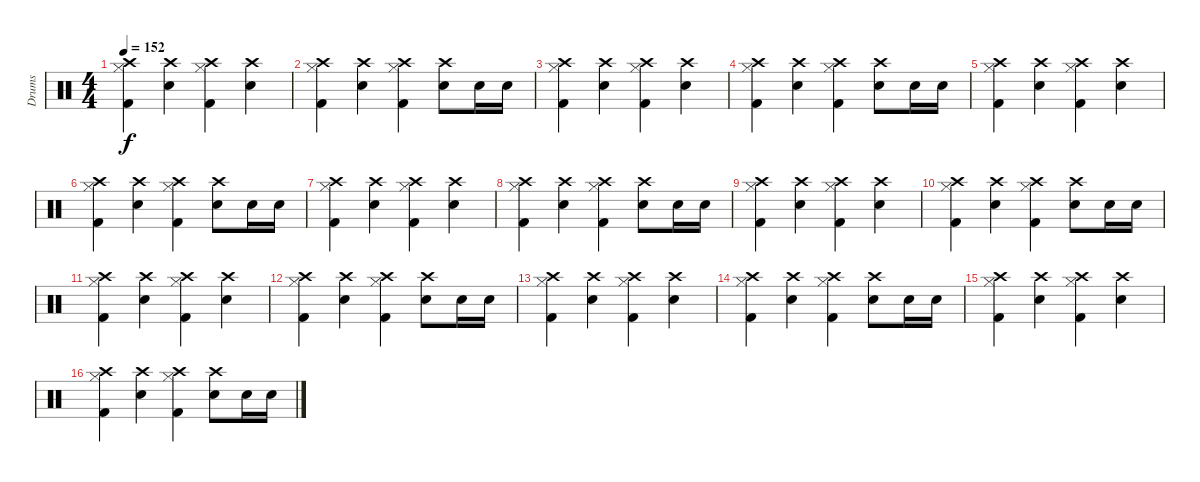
\track ("Drums" "Drums") {instrument percussion}
\staff {score}
\articulation defaults
\ts (4 4)
\tempo 152
\clef neutral
\ks c
("Crash high (hit)" "Hi-Hat (closed)" "Kick (hit) 2").4{dy f} ("Crash high (hit)" "Electric Snare (hit)").4 ("Crash high (hit)" "Hi-Hat (closed)" "Kick (hit) 2").4 ("Crash high (hit)" "Electric Snare (hit)").4 |
("Crash high (hit)" "Hi-Hat (closed)" "Kick (hit) 2").4 ("Crash high (hit)" "Electric Snare (hit)").4 ("Crash high (hit)" "Hi-Hat (closed)" "Kick (hit) 2").4 ("Crash high (hit)" "Electric Snare (hit)").8 "Electric Snare (hit)".16 "Electric Snare (hit)".16 |
("Crash high (hit)" "Hi-Hat (closed)" "Kick (hit) 2").4 ("Crash high (hit)" "Electric Snare (hit)").4 ("Crash high (hit)" "Hi-Hat (closed)" "Kick (hit) 2").4 ("Crash high (hit)" "Electric Snare (hit)").4 |
("Crash high (hit)" "Hi-Hat (closed)" "Kick (hit) 2").4 ("Crash high (hit)" "Electric Snare (hit)").4 ("Crash high (hit)" "Hi-Hat (closed)" "Kick (hit) 2").4 ("Crash high (hit)" "Electric Snare (hit)").8 "Electric Snare (hit)".16 "Electric Snare (hit)".16 |
("Crash high (hit)" "Hi-Hat (closed)" "Kick (hit) 2").4 ("Crash high (hit)" "Electric Snare (hit)").4 ("Crash high (hit)" "Hi-Hat (closed)" "Kick (hit) 2").4 ("Crash high (hit)" "Electric Snare (hit)").4 |
("Crash high (hit)" "Hi-Hat (closed)" "Kick (hit) 2").4 ("Crash high (hit)" "Electric Snare (hit)").4 ("Crash high (hit)" "Hi-Hat (closed)" "Kick (hit) 2").4 ("Crash high (hit)" "Electric Snare (hit)").8 "Electric Snare (hit)".16 "Electric Snare (hit)".16 |
("Crash high (hit)" "Hi-Hat (closed)" "Kick (hit) 2").4 ("Crash high (hit)" "Electric Snare (hit)").4 ("Crash high (hit)" "Hi-Hat (closed)" "Kick (hit) 2").4 ("Crash high (hit)" "Electric Snare (hit)").4 |
("Crash high (hit)" "Hi-Hat (closed)" "Kick (hit) 2").4 ("Crash high (hit)" "Electric Snare (hit)").4 ("Crash high (hit)" "Hi-Hat (closed)" "Kick (hit) 2").4 ("Crash high (hit)" "Electric Snare (hit)").8 "Electric Snare (hit)".16 "Electric Snare (hit)".16 |
("Crash high (hit)" "Hi-Hat (closed)" "Kick (hit) 2").4 ("Crash high (hit)" "Electric Snare (hit)").4 ("Crash high (hit)" "Hi-Hat (closed)" "Kick (hit) 2").4 ("Crash high (hit)" "Electric Snare (hit)").4 |
("Crash high (hit)" "Hi-Hat (closed)" "Kick (hit) 2").4 ("Crash high (hit)" "Electric Snare (hit)").4 ("Crash high (hit)" "Hi-Hat (closed)" "Kick (hit) 2").4 ("Crash high (hit)" "Electric Snare (hit)").8 "Electric Snare (hit)".16 "Electric Snare (hit)".16 |
("Crash high (hit)" "Hi-Hat (closed)" "Kick (hit) 2").4 ("Crash high (hit)" "Electric Snare (hit)").4 ("Crash high (hit)" "Hi-Hat (closed)" "Kick (hit) 2").4 ("Crash high (hit)" "Electric Snare (hit)").4 |
("Crash high (hit)" "Hi-Hat (closed)" "Kick (hit) 2").4 ("Crash high (hit)" "Electric Snare (hit)").4 ("Crash high (hit)" "Hi-Hat (closed)" "Kick (hit) 2").4 ("Crash high (hit)" "Electric Snare (hit)").8 "Electric Snare (hit)".16 "Electric Snare (hit)".16 |
("Crash high (hit)" "Hi-Hat (closed)" "Kick (hit) 2").4 ("Crash high (hit)" "Electric Snare (hit)").4 ("Crash high (hit)" "Hi-Hat (closed)" "Kick (hit) 2").4 ("Crash high (hit)" "Electric Snare (hit)").4 |
("Crash high (hit)" "Hi-Hat (closed)" "Kick (hit) 2").4 ("Crash high (hit)" "Electric Snare (hit)").4 ("Crash high (hit)" "Hi-Hat (closed)" "Kick (hit) 2").4 ("Crash high (hit)" "Electric Snare (hit)").8 "Electric Snare (hit)".16 "Electric Snare (hit)".16 |
("Crash high (hit)" "Hi-Hat (closed)" "Kick (hit) 2").4 ("Crash high (hit)" "Electric Snare (hit)").4 ("Crash high (hit)" "Hi-Hat (closed)" "Kick (hit) 2").4 ("Crash high (hit)" "Electric Snare (hit)").4 |
("Crash high (hit)" "Hi-Hat (closed)" "Kick (hit) 2").4 ("Crash high (hit)" "Electric Snare (hit)").4 ("Crash high (hit)" "Hi-Hat (closed)" "Kick (hit) 2").4 ("Crash high (hit)" "Electric Snare (hit)").8 "Electric Snare (hit)".16 "Electric Snare (hit)".16
